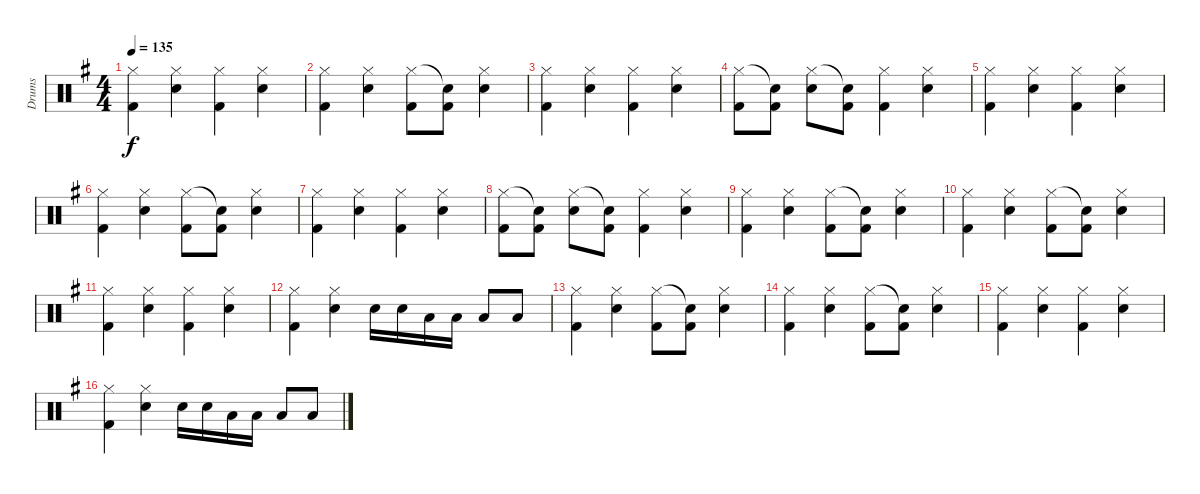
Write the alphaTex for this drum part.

\track ("Drums" "Drums") {instrument percussion}
\staff {score}
\articulation defaults
\ts (4 4)
\tempo 135
\clef neutral
\ks eminor
("Hi-Hat (closed)" "Kick (hit) 2").4{dy f} ("Hi-Hat (closed)" "Snare (hit) 2").4 ("Hi-Hat (closed)" "Kick (hit) 2").4 ("Hi-Hat (closed)" "Snare (hit) 2").4 |
("Hi-Hat (closed)" "Kick (hit) 2").4 ("Hi-Hat (closed)" "Snare (hit) 2").4 ("Hi-Hat (closed)" "Kick (hit) 2").8 ("Snare (hit)"{t} "Kick (hit) 2").8 ("Hi-Hat (closed)" "Snare (hit) 2").4 |
("Hi-Hat (closed)" "Kick (hit) 2").4 ("Hi-Hat (closed)" "Snare (hit) 2").4 ("Hi-Hat (closed)" "Kick (hit) 2").4 ("Hi-Hat (closed)" "Snare (hit) 2").4 |
("Hi-Hat (closed)" "Kick (hit) 2").8 ("Snare (hit)"{t} "Kick (hit) 2").8 ("Hi-Hat (closed)" "Snare (hit) 2").8 ("Snare (hit)"{t} "Kick (hit) 2").8 ("Hi-Hat (closed)" "Kick (hit) 2").4 ("Hi-Hat (closed)" "Snare (hit) 2").4 |
("Hi-Hat (closed)" "Kick (hit) 2").4 ("Hi-Hat (closed)" "Snare (hit) 2").4 ("Hi-Hat (closed)" "Kick (hit) 2").4 ("Hi-Hat (closed)" "Snare (hit) 2").4 |
("Hi-Hat (closed)" "Kick (hit) 2").4 ("Hi-Hat (closed)" "Snare (hit) 2").4 ("Hi-Hat (closed)" "Kick (hit) 2").8 ("Snare (hit)"{t} "Kick (hit) 2").8 ("Hi-Hat (closed)" "Snare (hit) 2").4 |
("Hi-Hat (closed)" "Kick (hit) 2").4 ("Hi-Hat (closed)" "Snare (hit) 2").4 ("Hi-Hat (closed)" "Kick (hit) 2").4 ("Hi-Hat (closed)" "Snare (hit) 2").4 |
("Hi-Hat (closed)" "Kick (hit) 2").8 ("Snare (hit)"{t} "Kick (hit) 2").8 ("Hi-Hat (closed)" "Snare (hit) 2").8 ("Snare (hit)"{t} "Kick (hit) 2").8 ("Hi-Hat (closed)" "Kick (hit) 2").4 ("Hi-Hat (closed)" "Snare (hit) 2").4 |
("Hi-Hat (closed)" "Kick (hit) 2").4 ("Hi-Hat (closed)" "Snare (hit) 2").4 ("Hi-Hat (closed)" "Kick (hit) 2").8 ("Snare (hit)"{t} "Kick (hit) 2").8 ("Hi-Hat (closed)" "Snare (hit) 2").4 |
("Hi-Hat (closed)" "Kick (hit) 2").4 ("Hi-Hat (closed)" "Snare (hit) 2").4 ("Hi-Hat (closed)" "Kick (hit) 2").8 ("Snare (hit)"{t} "Kick (hit) 2").8 ("Hi-Hat (closed)" "Snare (hit) 2").4 |
("Hi-Hat (closed)" "Kick (hit) 2").4 ("Hi-Hat (closed)" "Snare (hit) 2").4 ("Hi-Hat (closed)" "Kick (hit) 2").4 ("Hi-Hat (closed)" "Snare (hit) 2").4 |
("Hi-Hat (closed)" "Kick (hit) 2").4 ("Hi-Hat (closed)" "Snare (hit) 2").4 "Snare (hit) 2".16 "Snare (hit) 2".16 "Low Floor Tom (hit)".16 "Low Floor Tom (hit)".16 "Low Floor Tom (hit)".8 "Low Floor Tom (hit)".8 |
("Hi-Hat (closed)" "Kick (hit) 2").4 ("Hi-Hat (closed)" "Snare (hit) 2").4 ("Hi-Hat (closed)" "Kick (hit) 2").8 ("Snare (hit)"{t} "Kick (hit) 2").8 ("Hi-Hat (closed)" "Snare (hit) 2").4 |
("Hi-Hat (closed)" "Kick (hit) 2").4 ("Hi-Hat (closed)" "Snare (hit) 2").4 ("Hi-Hat (closed)" "Kick (hit) 2").8 ("Snare (hit)"{t} "Kick (hit) 2").8 ("Hi-Hat (closed)" "Snare (hit) 2").4 |
("Hi-Hat (closed)" "Kick (hit) 2").4 ("Hi-Hat (closed)" "Snare (hit) 2").4 ("Hi-Hat (closed)" "Kick (hit) 2").4 ("Hi-Hat (closed)" "Snare (hit) 2").4 |
("Hi-Hat (closed)" "Kick (hit) 2").4 ("Hi-Hat (closed)" "Snare (hit) 2").4 "Snare (hit) 2".16 "Snare (hit) 2".16 "Low Floor Tom (hit)".16 "Low Floor Tom (hit)".16 "Low Floor Tom (hit)".8 "Low Floor Tom (hit)".8
